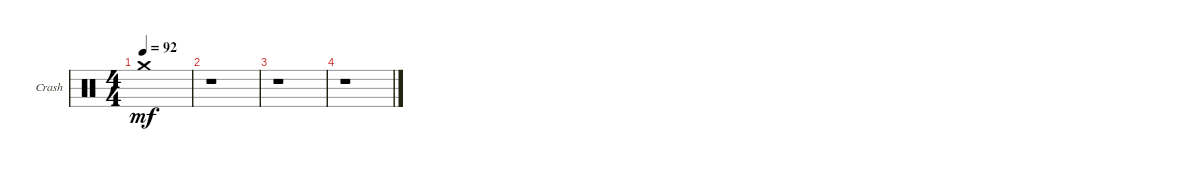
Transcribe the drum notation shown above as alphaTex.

\bracketExtendMode groupsimilarinstruments
\firstSystemTrackNameOrientation horizontal
\otherSystemsTrackNameOrientation horizontal
\track (" Crash" " Crash") {instrument percussion}
\staff {score}
\articulation defaults
\ts (4 4)
\tempo 92
\clef neutral
\ks c "Crash medium (hit)".1{dy mf}
|
r.1 |
r.1 |
r.1
